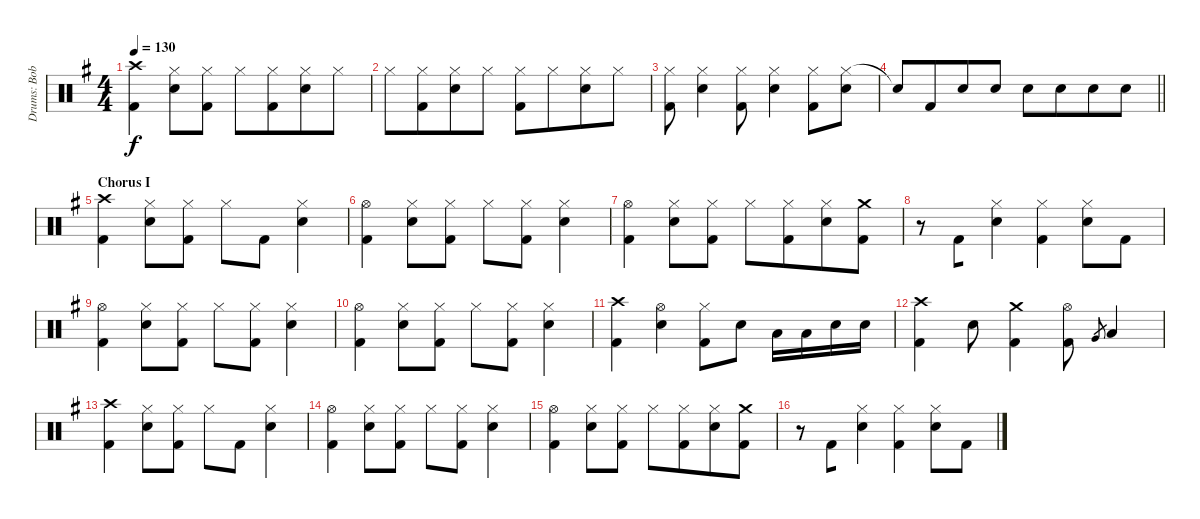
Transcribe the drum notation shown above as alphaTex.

\track ("Drums: Bobby" "Drums: Bob") {instrument percussion}
\staff {score}
\articulation defaults
\ts (4 4)
\tempo 130
\clef neutral
\ks g
("Crash high (hit)" "Kick (hit) 2").4{dy f beam merge} ("Hi-Hat (closed)" "Snare (hit) 2").8 ("Hi-Hat (closed)" "Kick (hit) 2").8 "Hi-Hat (closed)".8 ("Hi-Hat (closed)" "Kick (hit) 2").8{beam merge} ("Hi-Hat (closed)" "Snare (hit) 2").8 "Hi-Hat (closed)".8 |
"Hi-Hat (closed)".8 ("Hi-Hat (closed)" "Kick (hit) 2").8{beam merge} ("Hi-Hat (closed)" "Snare (hit) 2").8 "Hi-Hat (closed)".8 ("Hi-Hat (closed)" "Kick (hit) 2").8 "Hi-Hat (closed)".8{beam merge} ("Hi-Hat (closed)" "Snare (hit) 2").8 "Hi-Hat (closed)".8 |
("Hi-Hat (closed)" "Kick (hit) 2").8 ("Hi-Hat (closed)" "Snare (hit) 2").4 ("Hi-Hat (closed)" "Kick (hit) 2").8 ("Hi-Hat (closed)" "Snare (hit) 2").4 ("Hi-Hat (closed)" "Kick (hit) 2").8 ("Hi-Hat (closed)" "Snare (hit) 2").8 |
\barLineRight lightlight "Snare (hit)"{t}.8 "Kick (hit) 2".8{beam merge} "Snare (hit) 2".8 "Snare (hit) 2".8 "Snare (hit) 2".8 "Snare (hit) 2".8{beam merge} "Snare (hit) 2".8 "Snare (hit) 2".8
|
\section ("" "Chorus I")
("Crash high (hit)" "Kick (hit) 2").4{beam merge} ("Hi-Hat (closed)" "Snare (hit) 2").8 ("Hi-Hat (closed)" "Kick (hit) 2").8 "Hi-Hat (closed)".8 "Kick (hit) 2".8{beam merge} ("Hi-Hat (closed)" "Snare (hit) 2").4 |
("Hi-Hat (open)" "Kick (hit) 2").4{beam merge} ("Hi-Hat (closed)" "Snare (hit) 2").8 ("Hi-Hat (closed)" "Kick (hit) 2").8 "Hi-Hat (closed)".8 ("Hi-Hat (closed)" "Kick (hit) 2").8{beam merge} ("Hi-Hat (closed)" "Snare (hit) 2").4 |
("Hi-Hat (open)" "Kick (hit) 2").4{beam merge} ("Hi-Hat (closed)" "Snare (hit) 2").8 ("Hi-Hat (closed)" "Kick (hit) 2").8 "Hi-Hat (closed)".8 ("Hi-Hat (closed)" "Kick (hit) 2").8{beam merge} ("Hi-Hat (closed)" "Snare (hit) 2").8 ("Crash medium (hit)" "Kick (hit) 2").8 |
r.8 "Kick (hit) 2".8{beam merge} ("Hi-Hat (closed)" "Snare (hit) 2").4 ("Hi-Hat (closed)" "Kick (hit) 2").4{beam merge} ("Hi-Hat (closed)" "Snare (hit) 2").8 "Kick (hit) 2".8 |
("Hi-Hat (open)" "Kick (hit) 2").4{beam merge} ("Hi-Hat (closed)" "Snare (hit) 2").8 ("Hi-Hat (closed)" "Kick (hit) 2").8 "Hi-Hat (closed)".8 ("Hi-Hat (closed)" "Kick (hit) 2").8{beam merge} ("Hi-Hat (closed)" "Snare (hit) 2").4 |
("Hi-Hat (open)" "Kick (hit) 2").4{beam merge} ("Hi-Hat (closed)" "Snare (hit) 2").8 ("Hi-Hat (closed)" "Kick (hit) 2").8 "Hi-Hat (closed)".8 ("Hi-Hat (closed)" "Kick (hit) 2").8{beam merge} ("Hi-Hat (closed)" "Snare (hit) 2").4 |
("Crash high (hit)" "Kick (hit) 2").4 ("Hi-Hat (open)" "Snare (hit) 2").4 ("Hi-Hat (closed)" "Kick (hit) 2").8 "Snare (hit) 2".8 "Low Tom (hit)".16 "Low Tom (hit)".16 "Snare (hit) 2".16 "Snare (hit) 2".16 |
("Crash high (hit)" "Kick (hit) 2").4 "Snare (hit) 2".8 ("Crash medium (hit)" "Kick (hit) 2").4 ("Hi-Hat (open)" "Kick (hit) 2").8 "Very Low Tom (hit)".8{gr} "Low Tom (hit)".4 |
("Crash high (hit)" "Kick (hit) 2").4{beam merge} ("Hi-Hat (closed)" "Snare (hit) 2").8 ("Hi-Hat (closed)" "Kick (hit) 2").8 "Hi-Hat (closed)".8 "Kick (hit) 2".8{beam merge} ("Hi-Hat (closed)" "Snare (hit) 2").4 |
("Hi-Hat (open)" "Kick (hit) 2").4{beam merge} ("Hi-Hat (closed)" "Snare (hit) 2").8 ("Hi-Hat (closed)" "Kick (hit) 2").8 "Hi-Hat (closed)".8 ("Hi-Hat (closed)" "Kick (hit) 2").8{beam merge} ("Hi-Hat (closed)" "Snare (hit) 2").4 |
("Hi-Hat (open)" "Kick (hit) 2").4{beam merge} ("Hi-Hat (closed)" "Snare (hit) 2").8 ("Hi-Hat (closed)" "Kick (hit) 2").8 "Hi-Hat (closed)".8 ("Hi-Hat (closed)" "Kick (hit) 2").8{beam merge} ("Hi-Hat (closed)" "Snare (hit) 2").8 ("Crash medium (hit)" "Kick (hit) 2").8 |
r.8 "Kick (hit) 2".8{beam merge} ("Hi-Hat (closed)" "Snare (hit) 2").4 ("Hi-Hat (closed)" "Kick (hit) 2").4{beam merge} ("Hi-Hat (closed)" "Snare (hit) 2").8 "Kick (hit) 2".8
